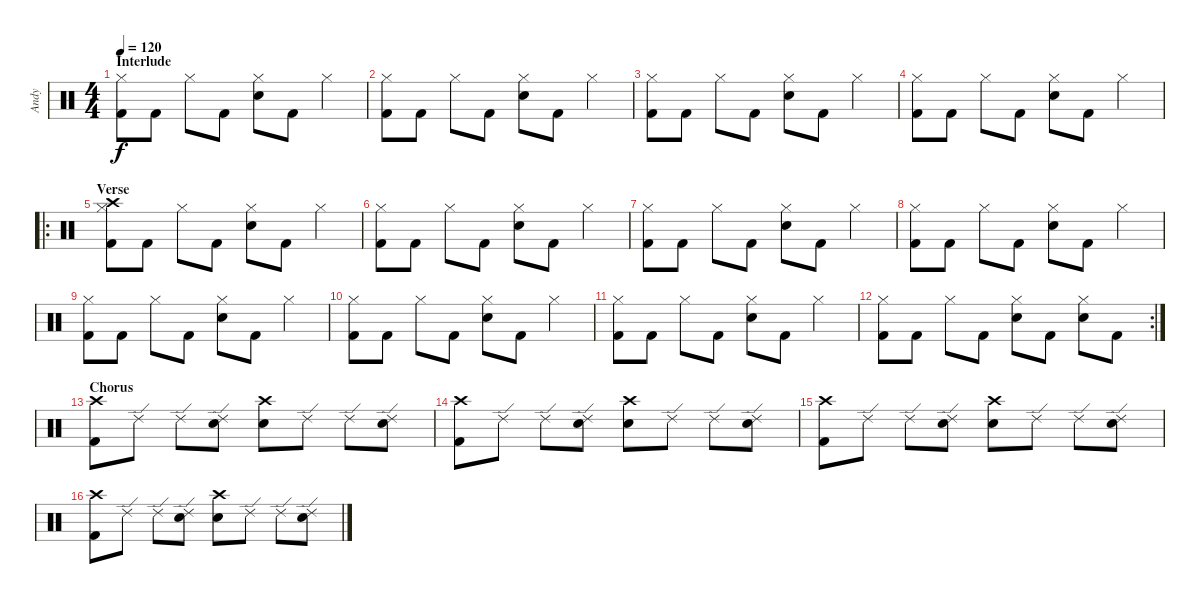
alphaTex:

\track ("Andy" "Andy") {instrument percussion}
\staff {score}
\articulation defaults
\ts (4 4)
\section ("" "Interlude")
\tempo 120
\clef neutral
\ks c
("Hi-Hat (closed)" "Kick (hit) 2").8{dy f} "Kick (hit) 2".8 "Hi-Hat (closed)".8 "Kick (hit) 2".8 ("Hi-Hat (closed)" "Snare (hit) 2").8 "Kick (hit) 2".8 "Hi-Hat (closed)".4 |
("Hi-Hat (closed)" "Kick (hit) 2").8 "Kick (hit) 2".8 "Hi-Hat (closed)".8 "Kick (hit) 2".8 ("Hi-Hat (closed)" "Snare (hit) 2").8 "Kick (hit) 2".8 "Hi-Hat (closed)".4 |
("Hi-Hat (closed)" "Kick (hit) 2").8 "Kick (hit) 2".8 "Hi-Hat (closed)".8 "Kick (hit) 2".8 ("Hi-Hat (closed)" "Snare (hit) 2").8 "Kick (hit) 2".8 "Hi-Hat (closed)".4 |
("Hi-Hat (closed)" "Kick (hit) 2").8 "Kick (hit) 2".8 "Hi-Hat (closed)".8 "Kick (hit) 2".8 ("Hi-Hat (closed)" "Snare (hit) 2").8 "Kick (hit) 2".8 "Hi-Hat (closed)".4 |
\ro
\section ("" "Verse")
("Crash high (hit)" "Hi-Hat (closed)" "Kick (hit) 2").8 "Kick (hit) 2".8 "Hi-Hat (closed)".8 "Kick (hit) 2".8 ("Hi-Hat (closed)" "Snare (hit) 2").8 "Kick (hit) 2".8 "Hi-Hat (closed)".4 |
("Hi-Hat (closed)" "Kick (hit) 2").8 "Kick (hit) 2".8 "Hi-Hat (closed)".8 "Kick (hit) 2".8 ("Hi-Hat (closed)" "Snare (hit) 2").8 "Kick (hit) 2".8 "Hi-Hat (closed)".4 |
("Hi-Hat (closed)" "Kick (hit) 2").8 "Kick (hit) 2".8 "Hi-Hat (closed)".8 "Kick (hit) 2".8 ("Hi-Hat (closed)" "Snare (hit) 2").8 "Kick (hit) 2".8 "Hi-Hat (closed)".4 |
("Hi-Hat (closed)" "Kick (hit) 2").8 "Kick (hit) 2".8 "Hi-Hat (closed)".8 "Kick (hit) 2".8 ("Hi-Hat (closed)" "Snare (hit) 2").8 "Kick (hit) 2".8 "Hi-Hat (closed)".4 |
("Hi-Hat (closed)" "Kick (hit) 2").8 "Kick (hit) 2".8 "Hi-Hat (closed)".8 "Kick (hit) 2".8 ("Hi-Hat (closed)" "Snare (hit) 2").8 "Kick (hit) 2".8 "Hi-Hat (closed)".4 |
("Hi-Hat (closed)" "Kick (hit) 2").8 "Kick (hit) 2".8 "Hi-Hat (closed)".8 "Kick (hit) 2".8 ("Hi-Hat (closed)" "Snare (hit) 2").8 "Kick (hit) 2".8 "Hi-Hat (closed)".4 |
("Hi-Hat (closed)" "Kick (hit) 2").8 "Kick (hit) 2".8 "Hi-Hat (closed)".8 "Kick (hit) 2".8 ("Hi-Hat (closed)" "Snare (hit) 2").8 "Kick (hit) 2".8 "Hi-Hat (closed)".4 |
\rc 2
("Hi-Hat (closed)" "Kick (hit) 2").8 "Kick (hit) 2".8 "Hi-Hat (closed)".8 "Kick (hit) 2".8 ("Hi-Hat (closed)" "Snare (hit) 2").8 "Kick (hit) 2".8 ("Hi-Hat (closed)" "Snare (hit) 2").8 "Kick (hit) 2".8 |
\section ("" "Chorus")
("Crash high (hit)" "Kick (hit) 2").8 "Ride (edge) 2".8 "Ride (edge) 2".8 ("Ride (edge) 2" "Snare (hit) 2").8 ("Crash high (hit)" "Snare (hit) 2").8 "Ride (edge) 2".8 "Ride (edge) 2".8 ("Ride (edge) 2" "Snare (hit) 2").8 |
("Crash high (hit)" "Kick (hit) 2").8 "Ride (edge) 2".8 "Ride (edge) 2".8 ("Ride (edge) 2" "Snare (hit) 2").8 ("Crash high (hit)" "Snare (hit) 2").8 "Ride (edge) 2".8 "Ride (edge) 2".8 ("Ride (edge) 2" "Snare (hit) 2").8 |
("Crash high (hit)" "Kick (hit) 2").8 "Ride (edge) 2".8 "Ride (edge) 2".8 ("Ride (edge) 2" "Snare (hit) 2").8 ("Crash high (hit)" "Snare (hit) 2").8 "Ride (edge) 2".8 "Ride (edge) 2".8 ("Ride (edge) 2" "Snare (hit) 2").8 |
("Crash high (hit)" "Kick (hit) 2").8 "Ride (edge) 2".8 "Ride (edge) 2".8 ("Ride (edge) 2" "Snare (hit) 2").8 ("Crash high (hit)" "Snare (hit) 2").8 "Ride (edge) 2".8 "Ride (edge) 2".8 ("Ride (edge) 2" "Snare (hit) 2").8
